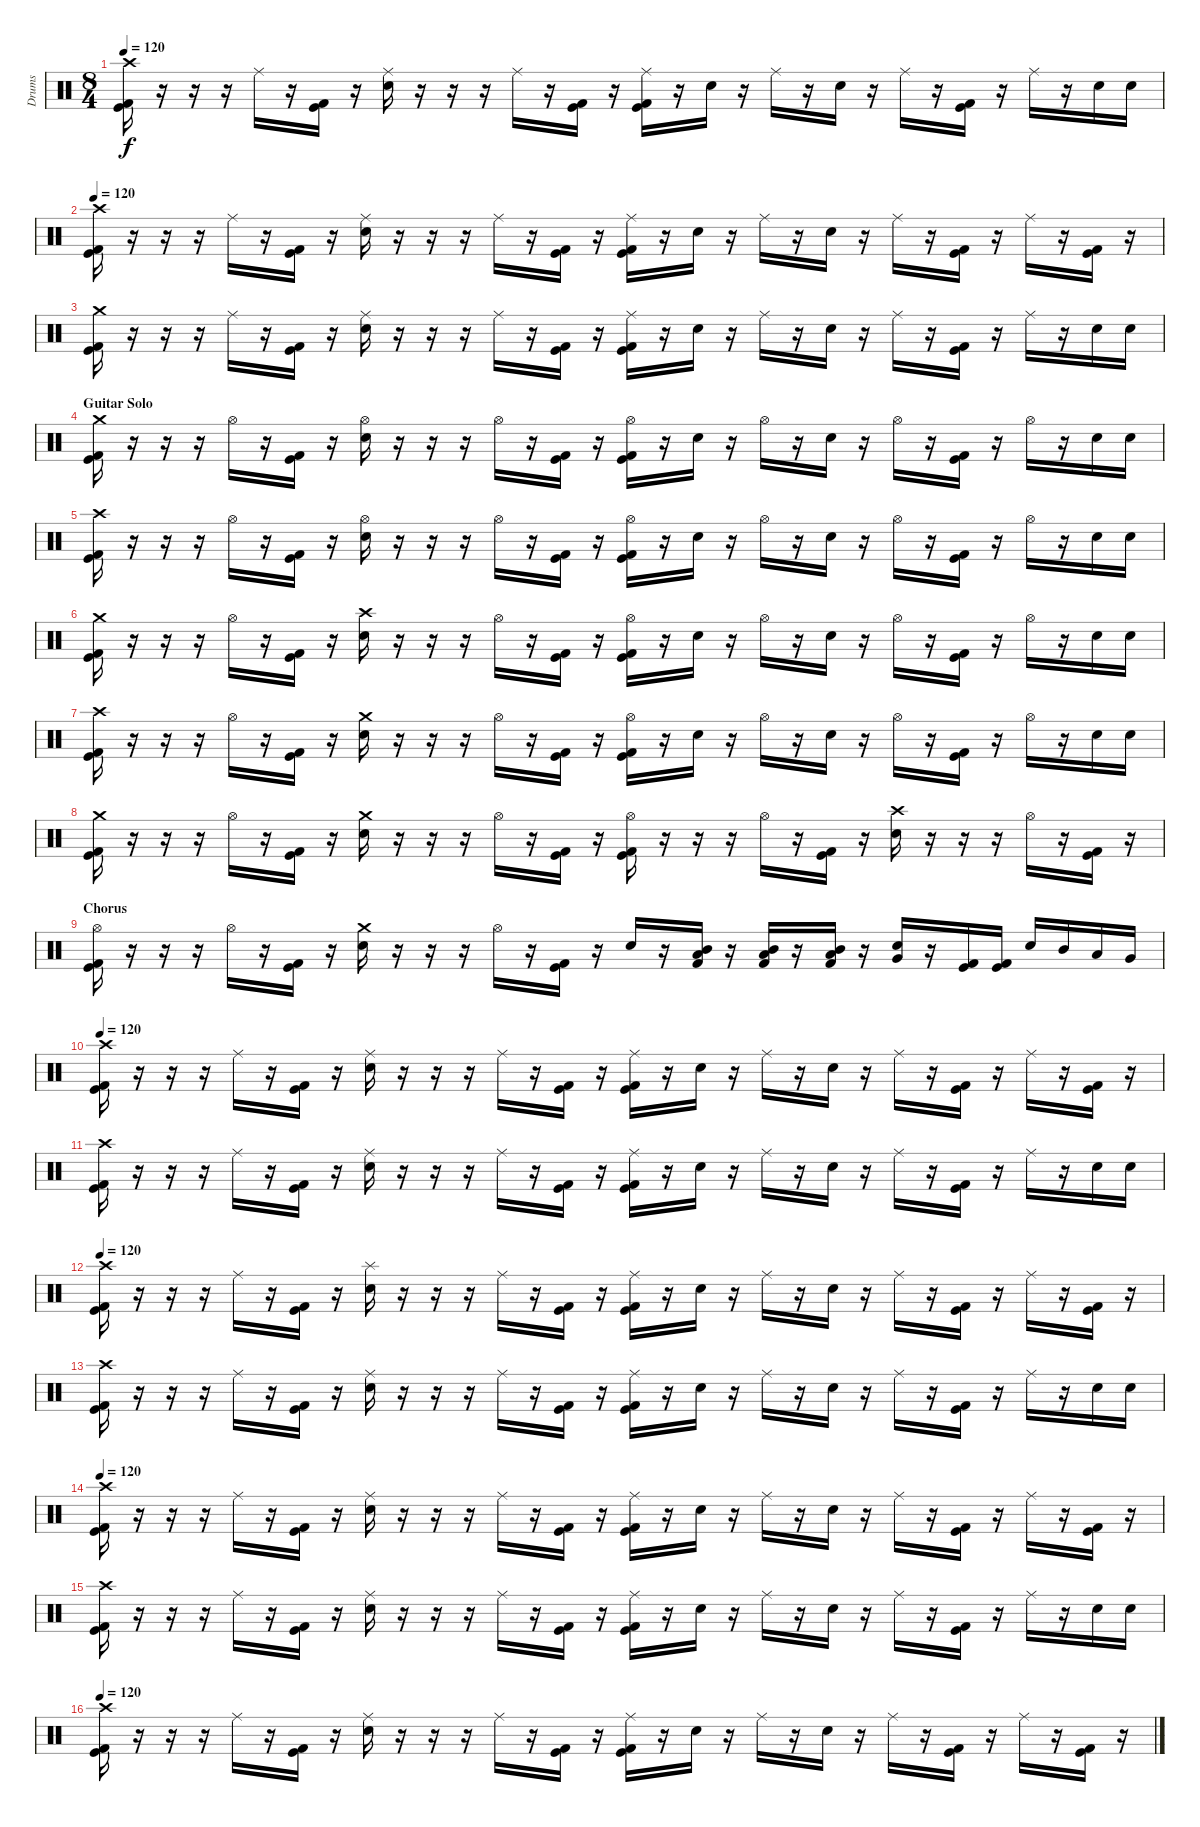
\track ("Drums" "Drums") {instrument percussion}
\staff {score}
\articulation defaults
\ts (8 4)
\tempo 120
\clef neutral
\ks c
("Crash high (hit)" "Kick (hit)" "Kick (hit) 2").16{dy f} r.16 r.16 r.16 "Ride (middle)".16 r.16 ("Kick (hit) 2" "Kick (hit)").16 r.16 ("Ride (middle)" "Electric Snare (hit)").16 r.16 r.16 r.16 "Ride (middle)".16 r.16 ("Kick (hit) 2" "Kick (hit)").16 r.16 ("Ride (middle)" "Kick (hit) 2" "Kick (hit)").16 r.16 "Electric Snare (hit)".16 r.16 "Ride (middle)".16 r.16 "Electric Snare (hit)".16 r.16 "Ride (middle)".16 r.16 ("Kick (hit) 2" "Kick (hit)").16 r.16 "Ride (middle)".16 r.16 "Electric Snare (hit)".16 "Electric Snare (hit)".16 |
\tempo 120
("Crash high (hit)" "Kick (hit)" "Kick (hit) 2").16 r.16 r.16 r.16 "Ride (middle)".16 r.16 ("Kick (hit) 2" "Kick (hit)").16 r.16 ("Ride (middle)" "Electric Snare (hit)").16 r.16 r.16 r.16 "Ride (middle)".16 r.16 ("Kick (hit) 2" "Kick (hit)").16 r.16 ("Ride (middle)" "Kick (hit) 2" "Kick (hit)").16 r.16 "Electric Snare (hit)".16 r.16 "Ride (middle)".16 r.16 "Electric Snare (hit)".16 r.16 "Ride (middle)".16 r.16 ("Kick (hit) 2" "Kick (hit)").16 r.16 "Ride (middle)".16 r.16 ("Kick (hit) 2" "Kick (hit)").16 r.16 |
("Crash medium (hit)" "Kick (hit)" "Kick (hit) 2").16 r.16 r.16 r.16 "Ride (middle)".16 r.16 ("Kick (hit) 2" "Kick (hit)").16 r.16 ("Ride (middle)" "Electric Snare (hit)").16 r.16 r.16 r.16 "Ride (middle)".16 r.16 ("Kick (hit) 2" "Kick (hit)").16 r.16 ("Ride (middle)" "Kick (hit) 2" "Kick (hit)").16 r.16 "Electric Snare (hit)".16 r.16 "Ride (middle)".16 r.16 "Electric Snare (hit)".16 r.16 "Ride (middle)".16 r.16 ("Kick (hit) 2" "Kick (hit)").16 r.16 "Ride (middle)".16 r.16 "Electric Snare (hit)".16 "Electric Snare (hit)".16 |
\section ("" "Guitar Solo")
("Crash medium (hit)" "Kick (hit)" "Kick (hit) 2").16 r.16 r.16 r.16 "Hi-Hat (open)".16 r.16 ("Kick (hit) 2" "Kick (hit)").16 r.16 ("Hi-Hat (open)" "Electric Snare (hit)").16 r.16 r.16 r.16 "Hi-Hat (open)".16 r.16 ("Kick (hit) 2" "Kick (hit)").16 r.16 ("Hi-Hat (open)" "Kick (hit) 2" "Kick (hit)").16 r.16 "Electric Snare (hit)".16 r.16 "Hi-Hat (open)".16 r.16 "Electric Snare (hit)".16 r.16 "Hi-Hat (open)".16 r.16 ("Kick (hit) 2" "Kick (hit)").16 r.16 "Hi-Hat (open)".16 r.16 "Electric Snare (hit)".16 "Electric Snare (hit)".16 |
("Crash high (hit)" "Kick (hit)" "Kick (hit) 2").16 r.16 r.16 r.16 "Hi-Hat (open)".16 r.16 ("Kick (hit) 2" "Kick (hit)").16 r.16 ("Hi-Hat (open)" "Electric Snare (hit)").16 r.16 r.16 r.16 "Hi-Hat (open)".16 r.16 ("Kick (hit) 2" "Kick (hit)").16 r.16 ("Hi-Hat (open)" "Kick (hit) 2" "Kick (hit)").16 r.16 "Electric Snare (hit)".16 r.16 "Hi-Hat (open)".16 r.16 "Electric Snare (hit)".16 r.16 "Hi-Hat (open)".16 r.16 ("Kick (hit) 2" "Kick (hit)").16 r.16 "Hi-Hat (open)".16 r.16 "Electric Snare (hit)".16 "Electric Snare (hit)".16 |
("Crash medium (hit)" "Kick (hit)" "Kick (hit) 2").16 r.16 r.16 r.16 "Hi-Hat (open)".16 r.16 ("Kick (hit) 2" "Kick (hit)").16 r.16 ("Crash high (hit)" "Electric Snare (hit)").16 r.16 r.16 r.16 "Hi-Hat (open)".16 r.16 ("Kick (hit) 2" "Kick (hit)").16 r.16 ("Hi-Hat (open)" "Kick (hit) 2" "Kick (hit)").16 r.16 "Electric Snare (hit)".16 r.16 "Hi-Hat (open)".16 r.16 "Electric Snare (hit)".16 r.16 "Hi-Hat (open)".16 r.16 ("Kick (hit) 2" "Kick (hit)").16 r.16 "Hi-Hat (open)".16 r.16 "Electric Snare (hit)".16 "Electric Snare (hit)".16 |
("Crash high (hit)" "Kick (hit)" "Kick (hit) 2").16 r.16 r.16 r.16 "Hi-Hat (open)".16 r.16 ("Kick (hit) 2" "Kick (hit)").16 r.16 ("Crash medium (hit)" "Electric Snare (hit)").16 r.16 r.16 r.16 "Hi-Hat (open)".16 r.16 ("Kick (hit) 2" "Kick (hit)").16 r.16 ("Hi-Hat (open)" "Kick (hit) 2" "Kick (hit)").16 r.16 "Electric Snare (hit)".16 r.16 "Hi-Hat (open)".16 r.16 "Electric Snare (hit)".16 r.16 "Hi-Hat (open)".16 r.16 ("Kick (hit) 2" "Kick (hit)").16 r.16 "Hi-Hat (open)".16 r.16 "Electric Snare (hit)".16 "Electric Snare (hit)".16 |
("Crash medium (hit)" "Kick (hit)" "Kick (hit) 2").16 r.16 r.16 r.16 "Hi-Hat (open)".16 r.16 ("Kick (hit) 2" "Kick (hit)").16 r.16 ("Crash medium (hit)" "Electric Snare (hit)").16 r.16 r.16 r.16 "Hi-Hat (open)".16 r.16 ("Kick (hit) 2" "Kick (hit)").16 r.16 ("Hi-Hat (open)" "Kick (hit) 2" "Kick (hit)").16 r.16 r.16 r.16 "Hi-Hat (open)".16 r.16 ("Kick (hit) 2" "Kick (hit)").16 r.16 ("Crash high (hit)" "Electric Snare (hit)").16 r.16 r.16 r.16 "Hi-Hat (open)".16 r.16 ("Kick (hit) 2" "Kick (hit)").16 r.16 |
\section ("" "Chorus")
("Hi-Hat (open)" "Kick (hit)" "Kick (hit) 2").16 r.16 r.16 r.16 "Hi-Hat (open)".16 r.16 ("Kick (hit) 2" "Kick (hit)").16 r.16 ("Crash medium (hit)" "Electric Snare (hit)").16 r.16 r.16 r.16 "Hi-Hat (open)".16 r.16 ("Kick (hit) 2" "Kick (hit)").16 r.16 "Electric Snare (hit)".16 r.16 ("Mid Tom (hit)" "Low Tom (hit)" "Kick (hit) 2").16 r.16 ("Mid Tom (hit)" "Low Tom (hit)" "Kick (hit) 2").16 r.16 ("Mid Tom (hit)" "Low Tom (hit)" "Kick (hit) 2").16 r.16 ("Very Low Tom (hit)" "Electric Snare (hit)").16 r.16 ("Kick (hit) 2" "Kick (hit)").16 ("Kick (hit) 2" "Kick (hit)").16 "Electric Snare (hit)".16 "Mid Tom (hit)".16 "Low Tom (hit)".16 "Very Low Tom (hit)".16 |
\tempo 120
("Crash high (hit)" "Kick (hit)" "Kick (hit) 2").16 r.16 r.16 r.16 "Ride (middle)".16 r.16 ("Kick (hit) 2" "Kick (hit)").16 r.16 ("Ride (middle)" "Electric Snare (hit)").16 r.16 r.16 r.16 "Ride (middle)".16 r.16 ("Kick (hit) 2" "Kick (hit)").16 r.16 ("Ride (middle)" "Kick (hit) 2" "Kick (hit)").16 r.16 "Electric Snare (hit)".16 r.16 "Ride (middle)".16 r.16 "Electric Snare (hit)".16 r.16 "Ride (middle)".16 r.16 ("Kick (hit) 2" "Kick (hit)").16 r.16 "Ride (middle)".16 r.16 ("Kick (hit) 2" "Kick (hit)").16 r.16 |
("Crash high (hit)" "Kick (hit)" "Kick (hit) 2").16 r.16 r.16 r.16 "Ride (middle)".16 r.16 ("Kick (hit) 2" "Kick (hit)").16 r.16 ("Ride (middle)" "Electric Snare (hit)").16 r.16 r.16 r.16 "Ride (middle)".16 r.16 ("Kick (hit) 2" "Kick (hit)").16 r.16 ("Ride (middle)" "Kick (hit) 2" "Kick (hit)").16 r.16 "Electric Snare (hit)".16 r.16 "Ride (middle)".16 r.16 "Electric Snare (hit)".16 r.16 "Ride (middle)".16 r.16 ("Kick (hit) 2" "Kick (hit)").16 r.16 "Ride (middle)".16 r.16 "Electric Snare (hit)".16 "Electric Snare (hit)".16 |
\tempo 120
("Crash high (hit)" "Kick (hit)" "Kick (hit) 2").16 r.16 r.16 r.16 "Ride (middle)".16 r.16 ("Kick (hit) 2" "Kick (hit)").16 r.16 ("Splash (hit)" "Electric Snare (hit)").16 r.16 r.16 r.16 "Ride (middle)".16 r.16 ("Kick (hit) 2" "Kick (hit)").16 r.16 ("Ride (middle)" "Kick (hit) 2" "Kick (hit)").16 r.16 "Electric Snare (hit)".16 r.16 "Ride (middle)".16 r.16 "Electric Snare (hit)".16 r.16 "Ride (middle)".16 r.16 ("Kick (hit) 2" "Kick (hit)").16 r.16 "Ride (middle)".16 r.16 ("Kick (hit) 2" "Kick (hit)").16 r.16 |
("Crash high (hit)" "Kick (hit)" "Kick (hit) 2").16 r.16 r.16 r.16 "Ride (middle)".16 r.16 ("Kick (hit) 2" "Kick (hit)").16 r.16 ("Ride (middle)" "Electric Snare (hit)").16 r.16 r.16 r.16 "Ride (middle)".16 r.16 ("Kick (hit) 2" "Kick (hit)").16 r.16 ("Ride (middle)" "Kick (hit) 2" "Kick (hit)").16 r.16 "Electric Snare (hit)".16 r.16 "Ride (middle)".16 r.16 "Electric Snare (hit)".16 r.16 "Ride (middle)".16 r.16 ("Kick (hit) 2" "Kick (hit)").16 r.16 "Ride (middle)".16 r.16 "Electric Snare (hit)".16 "Electric Snare (hit)".16 |
\tempo 120
("Crash high (hit)" "Kick (hit)" "Kick (hit) 2").16 r.16 r.16 r.16 "Ride (middle)".16 r.16 ("Kick (hit) 2" "Kick (hit)").16 r.16 ("Ride (middle)" "Electric Snare (hit)").16 r.16 r.16 r.16 "Ride (middle)".16 r.16 ("Kick (hit) 2" "Kick (hit)").16 r.16 ("Ride (middle)" "Kick (hit) 2" "Kick (hit)").16 r.16 "Electric Snare (hit)".16 r.16 "Ride (middle)".16 r.16 "Electric Snare (hit)".16 r.16 "Ride (middle)".16 r.16 ("Kick (hit) 2" "Kick (hit)").16 r.16 "Ride (middle)".16 r.16 ("Kick (hit) 2" "Kick (hit)").16 r.16 |
("Crash high (hit)" "Kick (hit)" "Kick (hit) 2").16 r.16 r.16 r.16 "Ride (middle)".16 r.16 ("Kick (hit) 2" "Kick (hit)").16 r.16 ("Ride (middle)" "Electric Snare (hit)").16 r.16 r.16 r.16 "Ride (middle)".16 r.16 ("Kick (hit) 2" "Kick (hit)").16 r.16 ("Ride (middle)" "Kick (hit) 2" "Kick (hit)").16 r.16 "Electric Snare (hit)".16 r.16 "Ride (middle)".16 r.16 "Electric Snare (hit)".16 r.16 "Ride (middle)".16 r.16 ("Kick (hit) 2" "Kick (hit)").16 r.16 "Ride (middle)".16 r.16 "Electric Snare (hit)".16 "Electric Snare (hit)".16 |
\tempo 120
("Crash high (hit)" "Kick (hit)" "Kick (hit) 2").16 r.16 r.16 r.16 "Ride (middle)".16 r.16 ("Kick (hit) 2" "Kick (hit)").16 r.16 ("Ride (middle)" "Electric Snare (hit)").16 r.16 r.16 r.16 "Ride (middle)".16 r.16 ("Kick (hit) 2" "Kick (hit)").16 r.16 ("Ride (middle)" "Kick (hit) 2" "Kick (hit)").16 r.16 "Electric Snare (hit)".16 r.16 "Ride (middle)".16 r.16 "Electric Snare (hit)".16 r.16 "Ride (middle)".16 r.16 ("Kick (hit) 2" "Kick (hit)").16 r.16 "Ride (middle)".16 r.16 ("Kick (hit) 2" "Kick (hit)").16 r.16
